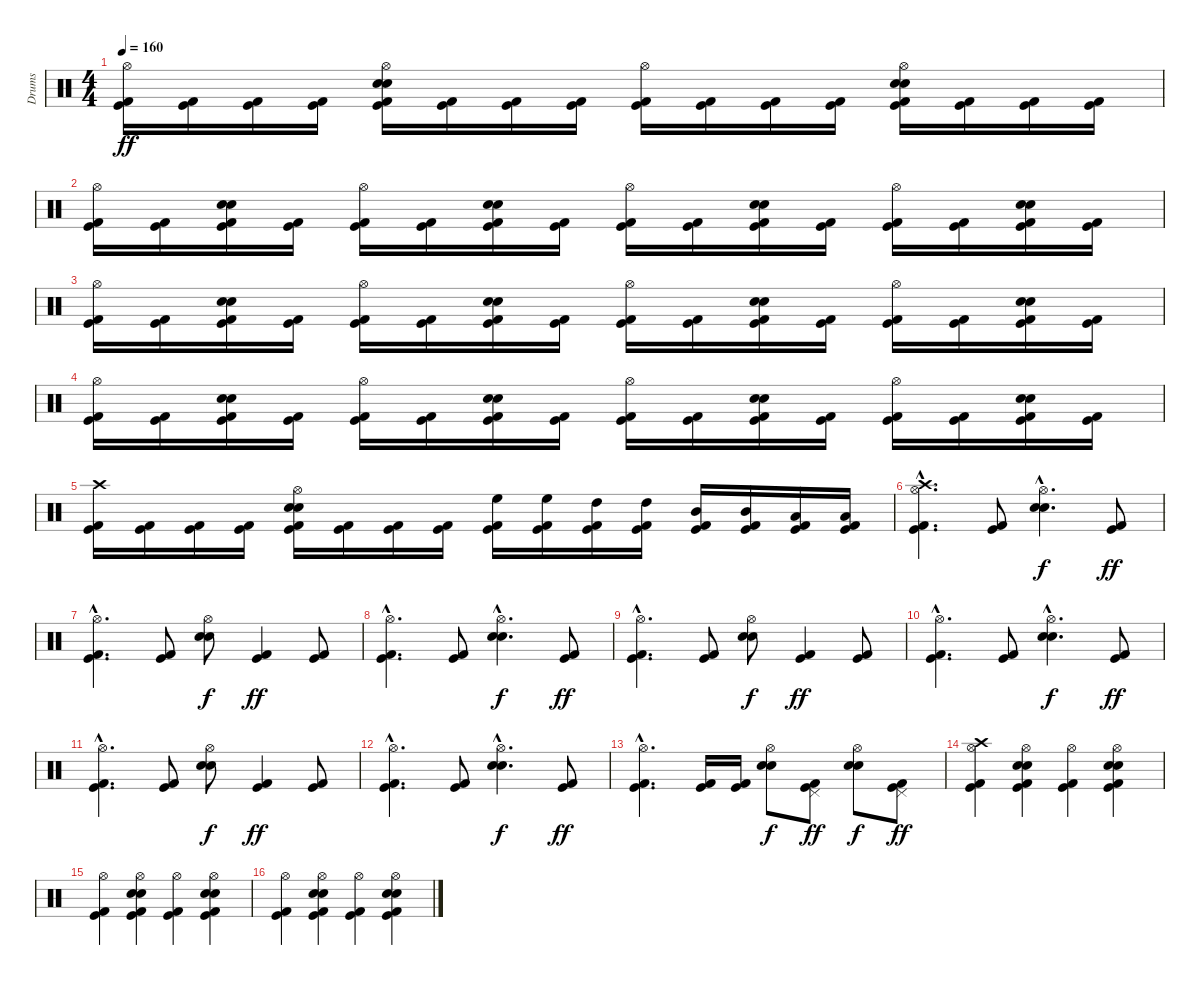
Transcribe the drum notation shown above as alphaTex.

\track ("Drums" "Drums") {instrument percussion}
\staff {score}
\articulation defaults
\ts (4 4)
\tempo 160
\clef neutral
\ks c
("Hi-Hat (open)" "Kick (hit) 2" "Kick (hit)").16{dy ff} ("Kick (hit) 2" "Kick (hit)").16 ("Kick (hit) 2" "Kick (hit)").16 ("Kick (hit) 2" "Kick (hit)").16 ("Hi-Hat (open)" "Snare (hit) 2" "Electric Snare (hit)" "Kick (hit) 2" "Kick (hit)").16 ("Kick (hit) 2" "Kick (hit)").16 ("Kick (hit) 2" "Kick (hit)").16 ("Kick (hit) 2" "Kick (hit)").16 ("Hi-Hat (open)" "Kick (hit) 2" "Kick (hit)").16 ("Kick (hit) 2" "Kick (hit)").16 ("Kick (hit) 2" "Kick (hit)").16 ("Kick (hit) 2" "Kick (hit)").16 ("Hi-Hat (open)" "Snare (hit) 2" "Electric Snare (hit)" "Kick (hit) 2" "Kick (hit)").16 ("Kick (hit) 2" "Kick (hit)").16 ("Kick (hit) 2" "Kick (hit)").16 ("Kick (hit) 2" "Kick (hit)").16 |
("Hi-Hat (open)" "Kick (hit) 2" "Kick (hit)").16 ("Kick (hit) 2" "Kick (hit)").16 ("Electric Snare (hit)" "Snare (hit) 2" "Kick (hit) 2" "Kick (hit)").16 ("Kick (hit) 2" "Kick (hit)").16 ("Hi-Hat (open)" "Kick (hit) 2" "Kick (hit)").16 ("Kick (hit) 2" "Kick (hit)").16 ("Electric Snare (hit)" "Snare (hit) 2" "Kick (hit) 2" "Kick (hit)").16 ("Kick (hit) 2" "Kick (hit)").16 ("Hi-Hat (open)" "Kick (hit) 2" "Kick (hit)").16 ("Kick (hit) 2" "Kick (hit)").16 ("Electric Snare (hit)" "Snare (hit) 2" "Kick (hit) 2" "Kick (hit)").16 ("Kick (hit) 2" "Kick (hit)").16 ("Hi-Hat (open)" "Kick (hit) 2" "Kick (hit)").16 ("Kick (hit) 2" "Kick (hit)").16 ("Electric Snare (hit)" "Snare (hit) 2" "Kick (hit) 2" "Kick (hit)").16 ("Kick (hit) 2" "Kick (hit)").16 |
("Hi-Hat (open)" "Kick (hit) 2" "Kick (hit)").16 ("Kick (hit) 2" "Kick (hit)").16 ("Electric Snare (hit)" "Snare (hit) 2" "Kick (hit) 2" "Kick (hit)").16 ("Kick (hit) 2" "Kick (hit)").16 ("Hi-Hat (open)" "Kick (hit) 2" "Kick (hit)").16 ("Kick (hit) 2" "Kick (hit)").16 ("Electric Snare (hit)" "Snare (hit) 2" "Kick (hit) 2" "Kick (hit)").16 ("Kick (hit) 2" "Kick (hit)").16 ("Hi-Hat (open)" "Kick (hit) 2" "Kick (hit)").16 ("Kick (hit) 2" "Kick (hit)").16 ("Electric Snare (hit)" "Snare (hit) 2" "Kick (hit) 2" "Kick (hit)").16 ("Kick (hit) 2" "Kick (hit)").16 ("Hi-Hat (open)" "Kick (hit) 2" "Kick (hit)").16 ("Kick (hit) 2" "Kick (hit)").16 ("Electric Snare (hit)" "Snare (hit) 2" "Kick (hit) 2" "Kick (hit)").16 ("Kick (hit) 2" "Kick (hit)").16 |
("Hi-Hat (open)" "Kick (hit) 2" "Kick (hit)").16 ("Kick (hit) 2" "Kick (hit)").16 ("Electric Snare (hit)" "Snare (hit) 2" "Kick (hit) 2" "Kick (hit)").16 ("Kick (hit) 2" "Kick (hit)").16 ("Hi-Hat (open)" "Kick (hit) 2" "Kick (hit)").16 ("Kick (hit) 2" "Kick (hit)").16 ("Electric Snare (hit)" "Snare (hit) 2" "Kick (hit) 2" "Kick (hit)").16 ("Kick (hit) 2" "Kick (hit)").16 ("Hi-Hat (open)" "Kick (hit) 2" "Kick (hit)").16 ("Kick (hit) 2" "Kick (hit)").16 ("Electric Snare (hit)" "Snare (hit) 2" "Kick (hit) 2" "Kick (hit)").16 ("Kick (hit) 2" "Kick (hit)").16 ("Hi-Hat (open)" "Kick (hit) 2" "Kick (hit)").16 ("Kick (hit) 2" "Kick (hit)").16 ("Electric Snare (hit)" "Snare (hit) 2" "Kick (hit) 2" "Kick (hit)").16 ("Kick (hit) 2" "Kick (hit)").16 |
("Crash high (hit)" "Kick (hit) 2" "Kick (hit)").16 ("Kick (hit) 2" "Kick (hit)").16 ("Kick (hit) 2" "Kick (hit)").16 ("Kick (hit) 2" "Kick (hit)").16 ("Hi-Hat (open)" "Snare (hit) 2" "Electric Snare (hit)" "Kick (hit) 2" "Kick (hit)").16 ("Kick (hit) 2" "Kick (hit)").16 ("Kick (hit) 2" "Kick (hit)").16 ("Kick (hit) 2" "Kick (hit)").16 ("High Floor Tom (hit)" "Kick (hit) 2" "Kick (hit)").16 ("High Floor Tom (hit)" "Kick (hit) 2" "Kick (hit)").16 ("High Tom (hit)" "Kick (hit) 2" "Kick (hit)").16 ("High Tom (hit)" "Kick (hit) 2" "Kick (hit)").16 ("Mid Tom (hit)" "Kick (hit) 2" "Kick (hit)").16 ("Mid Tom (hit)" "Kick (hit) 2" "Kick (hit)").16 ("Low Tom (hit)" "Kick (hit) 2" "Kick (hit)").16 ("Low Tom (hit)" "Kick (hit) 2" "Kick (hit)").16 |
("Hi-Hat (open)"{hac} "Crash high (hit)"{hac} "Kick (hit) 2"{hac} "Kick (hit)"{hac}).4{d} ("Kick (hit)" "Kick (hit) 2").8 ("Hi-Hat (open)"{hac} "Snare (hit) 2"{hac} "Electric Snare (hit)"{hac}).4{d dy f} ("Kick (hit)" "Kick (hit) 2").8{dy ff} |
("Hi-Hat (open)"{hac} "Kick (hit) 2"{hac} "Kick (hit)"{hac}).4{d} ("Kick (hit)" "Kick (hit) 2").8 ("Hi-Hat (open)" "Snare (hit) 2" "Electric Snare (hit)").8{dy f} ("Kick (hit)" "Kick (hit) 2").4{dy ff} ("Kick (hit)" "Kick (hit) 2").8 |
("Hi-Hat (open)"{hac} "Kick (hit) 2"{hac} "Kick (hit)"{hac}).4{d} ("Kick (hit)" "Kick (hit) 2").8 ("Hi-Hat (open)"{hac} "Snare (hit) 2"{hac} "Electric Snare (hit)"{hac}).4{d dy f} ("Kick (hit)" "Kick (hit) 2").8{dy ff} |
("Hi-Hat (open)"{hac} "Kick (hit) 2"{hac} "Kick (hit)"{hac}).4{d} ("Kick (hit)" "Kick (hit) 2").8 ("Hi-Hat (open)" "Snare (hit) 2" "Electric Snare (hit)").8{dy f} ("Kick (hit)" "Kick (hit) 2").4{dy ff} ("Kick (hit)" "Kick (hit) 2").8 |
("Hi-Hat (open)"{hac} "Kick (hit) 2"{hac} "Kick (hit)"{hac}).4{d} ("Kick (hit)" "Kick (hit) 2").8 ("Hi-Hat (open)"{hac} "Snare (hit) 2"{hac} "Electric Snare (hit)"{hac}).4{d dy f} ("Kick (hit)" "Kick (hit) 2").8{dy ff} |
("Hi-Hat (open)"{hac} "Kick (hit) 2"{hac} "Kick (hit)"{hac}).4{d} ("Kick (hit)" "Kick (hit) 2").8 ("Hi-Hat (open)" "Snare (hit) 2" "Electric Snare (hit)").8{dy f} ("Kick (hit)" "Kick (hit) 2").4{dy ff} ("Kick (hit)" "Kick (hit) 2").8 |
("Hi-Hat (open)"{hac} "Kick (hit) 2"{hac} "Kick (hit)"{hac}).4{d} ("Kick (hit)" "Kick (hit) 2").8 ("Hi-Hat (open)"{hac} "Snare (hit) 2"{hac} "Electric Snare (hit)"{hac}).4{d dy f} ("Kick (hit)" "Kick (hit) 2").8{dy ff} |
("Hi-Hat (open)"{hac} "Kick (hit) 2"{hac} "Kick (hit)"{hac}).4{d} ("Kick (hit) 2" "Kick (hit)").16 ("Kick (hit)" "Kick (hit) 2").16 ("Hi-Hat (open)" "Snare (hit) 2" "Electric Snare (hit)").8{dy f} ("Pedal Hi-Hat (hit)" "Kick (hit)" "Kick (hit) 2").8{dy ff} ("Hi-Hat (open)" "Snare (hit) 2" "Electric Snare (hit)").8{dy f} ("Pedal Hi-Hat (hit)" "Kick (hit)" "Kick (hit) 2").8{dy ff} |
("Hi-Hat (open)" "Crash high (hit)" "Kick (hit) 2" "Kick (hit)").4 ("Hi-Hat (open)" "Snare (hit) 2" "Electric Snare (hit)" "Kick (hit) 2" "Kick (hit)").4 ("Hi-Hat (open)" "Kick (hit) 2" "Kick (hit)").4 ("Hi-Hat (open)" "Snare (hit) 2" "Electric Snare (hit)" "Kick (hit) 2" "Kick (hit)").4 |
("Hi-Hat (open)" "Kick (hit) 2" "Kick (hit)").4 ("Hi-Hat (open)" "Snare (hit) 2" "Electric Snare (hit)" "Kick (hit) 2" "Kick (hit)").4 ("Hi-Hat (open)" "Kick (hit) 2" "Kick (hit)").4 ("Hi-Hat (open)" "Snare (hit) 2" "Electric Snare (hit)" "Kick (hit) 2" "Kick (hit)").4 |
("Hi-Hat (open)" "Kick (hit) 2" "Kick (hit)").4 ("Hi-Hat (open)" "Snare (hit) 2" "Electric Snare (hit)" "Kick (hit) 2" "Kick (hit)").4 ("Hi-Hat (open)" "Kick (hit) 2" "Kick (hit)").4 ("Hi-Hat (open)" "Snare (hit) 2" "Electric Snare (hit)" "Kick (hit) 2" "Kick (hit)").4
